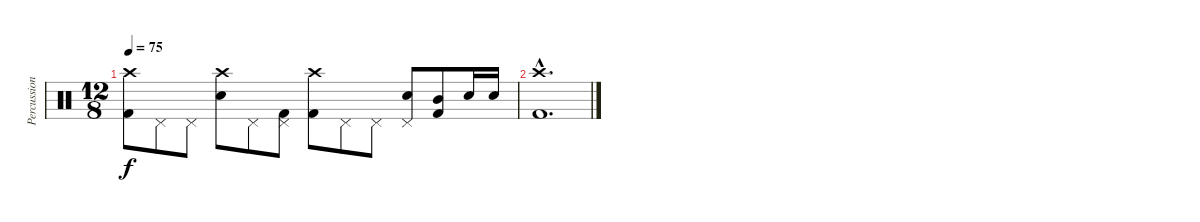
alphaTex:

\track ("Percussions" "Percussion") {instrument percussion}
\staff {score}
\articulation defaults
\ts (12 8)
\tempo 75
\clef neutral
\ks c
("Crash high (hit)" "Kick (hit) 2").8{dy f} "Pedal Hi-Hat (hit)".8 "Pedal Hi-Hat (hit)".8 ("Crash high (hit)" "Electric Snare (hit)").8 "Pedal Hi-Hat (hit)".8 ("Pedal Hi-Hat (hit)" "Kick (hit) 2").8 ("Crash high (hit)" "Kick (hit) 2").8 "Pedal Hi-Hat (hit)".8 "Pedal Hi-Hat (hit)".8 ("Pedal Hi-Hat (hit)" "Electric Snare (hit)").8 ("Mid Tom (hit)" "Kick (hit) 2").8 "Electric Snare (hit)".16 "Electric Snare (hit)".16 |
("Crash high (hit)"{hac} "Kick (hit) 2"{hac}).1{d}
